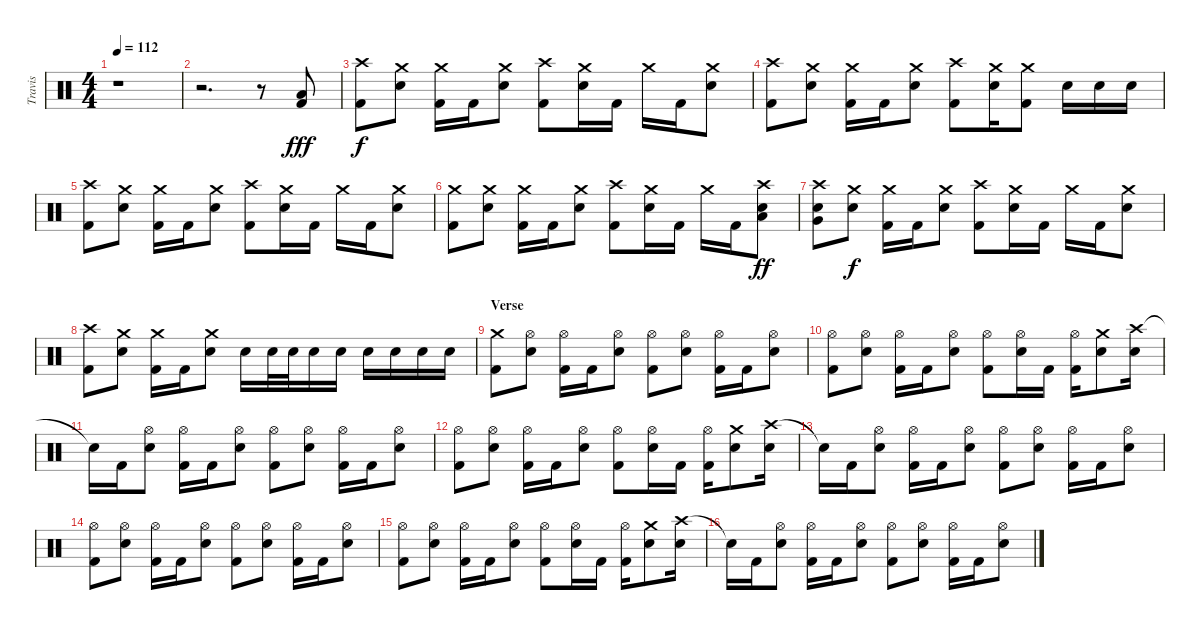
\track ("Travis" "Travis") {instrument percussion}
\staff {score}
\articulation defaults
\ts (4 4)
\tempo 112
\clef neutral
\ks c
r.1{dy fff} |
r.2{d} r.8 ("Low Tom (hit)" "Kick (hit) 2").8 |
("Crash high (hit)" "Kick (hit) 2").8{dy f} ("Crash medium (hit)" "Electric Snare (hit)").8 ("Crash medium (hit)" "Kick (hit) 2").16 "Kick (hit) 2".16 ("Crash medium (hit)" "Electric Snare (hit)").8 ("Crash high (hit)" "Kick (hit) 2").8 ("Crash medium (hit)" "Electric Snare (hit)").16 "Kick (hit) 2".16 "Crash medium (hit)".16 "Kick (hit) 2".16 ("Crash medium (hit)" "Electric Snare (hit)").8 |
("Crash high (hit)" "Kick (hit) 2").8 ("Crash medium (hit)" "Electric Snare (hit)").8 ("Crash medium (hit)" "Kick (hit) 2").16 "Kick (hit) 2".16 ("Crash medium (hit)" "Electric Snare (hit)").8 ("Crash high (hit)" "Kick (hit) 2").8 ("Crash medium (hit)" "Electric Snare (hit)").16 ("Crash medium (hit)" "Kick (hit) 2").8 "Electric Snare (hit)".16 "Electric Snare (hit)".16 "Electric Snare (hit)".16 |
("Crash high (hit)" "Kick (hit) 2").8 ("Crash medium (hit)" "Electric Snare (hit)").8 ("Crash medium (hit)" "Kick (hit) 2").16 "Kick (hit) 2".16 ("Crash medium (hit)" "Electric Snare (hit)").8 ("Crash high (hit)" "Kick (hit) 2").8 ("Crash medium (hit)" "Electric Snare (hit)").16 "Kick (hit) 2".16 "Crash medium (hit)".16 "Kick (hit) 2".16 ("Crash medium (hit)" "Electric Snare (hit)").8 |
("Crash medium (hit)" "Kick (hit) 2").8 ("Crash medium (hit)" "Electric Snare (hit)").8 ("Crash medium (hit)" "Kick (hit) 2").16 "Kick (hit) 2".16 ("Crash medium (hit)" "Electric Snare (hit)").8 ("Crash high (hit)" "Kick (hit) 2").8 ("Crash medium (hit)" "Electric Snare (hit)").16 "Kick (hit) 2".16 "Crash medium (hit)".16 "Kick (hit) 2".16 ("Crash high (hit)" "Low Tom (hit)" "Electric Snare (hit)").8{dy ff} |
("Crash high (hit)" "Very Low Tom (hit)" "Electric Snare (hit)").8 ("Crash medium (hit)" "Electric Snare (hit)").8{dy f} ("Crash medium (hit)" "Kick (hit) 2").16 "Kick (hit) 2".16 ("Crash medium (hit)" "Electric Snare (hit)").8 ("Crash high (hit)" "Kick (hit) 2").8 ("Crash medium (hit)" "Electric Snare (hit)").16 "Kick (hit) 2".16 "Crash medium (hit)".16 "Kick (hit) 2".16 ("Crash medium (hit)" "Electric Snare (hit)").8 |
("Crash high (hit)" "Kick (hit) 2").8 ("Crash medium (hit)" "Electric Snare (hit)").8 ("Crash medium (hit)" "Kick (hit) 2").16 "Kick (hit) 2".16 ("Crash medium (hit)" "Electric Snare (hit)").8 "Electric Snare (hit)".16 "Electric Snare (hit)".32 "Electric Snare (hit)".32 "Electric Snare (hit)".16 "Electric Snare (hit)".16 "Electric Snare (hit)".16 "Electric Snare (hit)".16 "Electric Snare (hit)".16 "Electric Snare (hit)".16 |
\section ("" "Verse")
("Crash medium (hit)" "Kick (hit) 2").8 ("Hi-Hat (open)" "Electric Snare (hit)").8 ("Hi-Hat (open)" "Kick (hit) 2").16 "Kick (hit) 2".16 ("Hi-Hat (open)" "Electric Snare (hit)").8 ("Hi-Hat (open)" "Kick (hit) 2").8 ("Hi-Hat (open)" "Electric Snare (hit)").8 ("Hi-Hat (open)" "Kick (hit) 2").16 "Kick (hit) 2".16 ("Hi-Hat (open)" "Electric Snare (hit)").8 |
("Hi-Hat (open)" "Kick (hit) 2").8 ("Hi-Hat (open)" "Electric Snare (hit)").8 ("Hi-Hat (open)" "Kick (hit) 2").16 "Kick (hit) 2".16 ("Hi-Hat (open)" "Electric Snare (hit)").8 ("Hi-Hat (open)" "Kick (hit) 2").8 ("Hi-Hat (open)" "Electric Snare (hit)").16 "Kick (hit) 2".16 ("Hi-Hat (open)" "Kick (hit) 2").16 ("Crash medium (hit)" "Electric Snare (hit)").8 ("Crash high (hit)" "Electric Snare (hit)").16 |
"Snare (hit)"{t}.16 "Kick (hit) 2".16 ("Hi-Hat (open)" "Electric Snare (hit)").8 ("Hi-Hat (open)" "Kick (hit) 2").16 "Kick (hit) 2".16 ("Hi-Hat (open)" "Electric Snare (hit)").8 ("Hi-Hat (open)" "Kick (hit) 2").8 ("Hi-Hat (open)" "Electric Snare (hit)").8 ("Hi-Hat (open)" "Kick (hit) 2").16 "Kick (hit) 2".16 ("Hi-Hat (open)" "Electric Snare (hit)").8 |
("Hi-Hat (open)" "Kick (hit) 2").8 ("Hi-Hat (open)" "Electric Snare (hit)").8 ("Hi-Hat (open)" "Kick (hit) 2").16 "Kick (hit) 2".16 ("Hi-Hat (open)" "Electric Snare (hit)").8 ("Hi-Hat (open)" "Kick (hit) 2").8 ("Hi-Hat (open)" "Electric Snare (hit)").16 "Kick (hit) 2".16 ("Hi-Hat (open)" "Kick (hit) 2").16 ("Crash medium (hit)" "Electric Snare (hit)").8 ("Crash high (hit)" "Electric Snare (hit)").16 |
"Snare (hit)"{t}.16 "Kick (hit) 2".16 ("Hi-Hat (open)" "Electric Snare (hit)").8 ("Hi-Hat (open)" "Kick (hit) 2").16 "Kick (hit) 2".16 ("Hi-Hat (open)" "Electric Snare (hit)").8 ("Hi-Hat (open)" "Kick (hit) 2").8 ("Hi-Hat (open)" "Electric Snare (hit)").8 ("Hi-Hat (open)" "Kick (hit) 2").16 "Kick (hit) 2".16 ("Hi-Hat (open)" "Electric Snare (hit)").8 |
("Hi-Hat (open)" "Kick (hit) 2").8 ("Hi-Hat (open)" "Electric Snare (hit)").8 ("Hi-Hat (open)" "Kick (hit) 2").16 "Kick (hit) 2".16 ("Hi-Hat (open)" "Electric Snare (hit)").8 ("Hi-Hat (open)" "Kick (hit) 2").8 ("Hi-Hat (open)" "Electric Snare (hit)").8 ("Hi-Hat (open)" "Kick (hit) 2").16 "Kick (hit) 2".16 ("Hi-Hat (open)" "Electric Snare (hit)").8 |
("Hi-Hat (open)" "Kick (hit) 2").8 ("Hi-Hat (open)" "Electric Snare (hit)").8 ("Hi-Hat (open)" "Kick (hit) 2").16 "Kick (hit) 2".16 ("Hi-Hat (open)" "Electric Snare (hit)").8 ("Hi-Hat (open)" "Kick (hit) 2").8 ("Hi-Hat (open)" "Electric Snare (hit)").16 "Kick (hit) 2".16 ("Hi-Hat (open)" "Kick (hit) 2").16 ("Crash medium (hit)" "Electric Snare (hit)").8 ("Crash high (hit)" "Electric Snare (hit)").16 |
"Snare (hit)"{t}.16 "Kick (hit) 2".16 ("Hi-Hat (open)" "Electric Snare (hit)").8 ("Hi-Hat (open)" "Kick (hit) 2").16 "Kick (hit) 2".16 ("Hi-Hat (open)" "Electric Snare (hit)").8 ("Hi-Hat (open)" "Kick (hit) 2").8 ("Hi-Hat (open)" "Electric Snare (hit)").8 ("Hi-Hat (open)" "Kick (hit) 2").16 "Kick (hit) 2".16 ("Hi-Hat (open)" "Electric Snare (hit)").8
